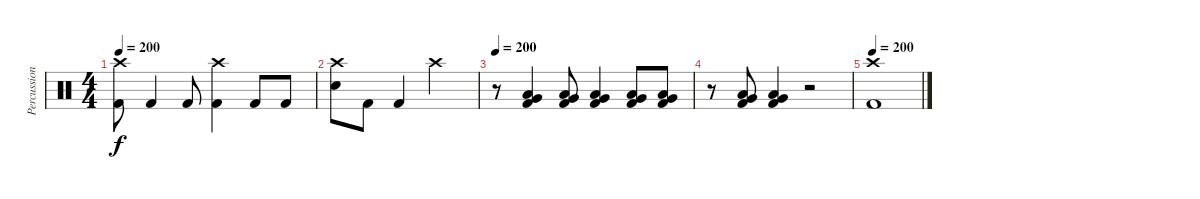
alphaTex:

\track ("Percussion" "Percussion") {instrument percussion}
\staff {score}
\articulation defaults
\ts (4 4)
\tempo 200
\clef neutral
\ks c
("Crash high (hit)" "Kick (hit) 2").8{dy f} "Kick (hit) 2".4 "Kick (hit) 2".8 ("Crash high (hit)" "Kick (hit) 2").4 "Kick (hit) 2".8 "Kick (hit) 2".8 |
("Crash high (hit)" "Electric Snare (hit)").8 "Kick (hit) 2".8 "Kick (hit) 2".4 "Crash high (hit)".2 |
\tempo 200
r.8 ("Very Low Tom (hit)" "Low Floor Tom (hit)" "Kick (hit) 2").4 ("Very Low Tom (hit)" "Low Floor Tom (hit)" "Kick (hit) 2").8 ("Very Low Tom (hit)" "Low Floor Tom (hit)" "Kick (hit) 2").4 ("Very Low Tom (hit)" "Low Floor Tom (hit)" "Kick (hit) 2").8 ("Very Low Tom (hit)" "Low Floor Tom (hit)" "Kick (hit) 2").8 |
r.8 ("Very Low Tom (hit)" "Low Floor Tom (hit)" "Kick (hit) 2").8 ("Very Low Tom (hit)" "Low Floor Tom (hit)" "Kick (hit) 2").4 r.2 |
\tempo 200
("Crash high (hit)" "Kick (hit) 2").1
